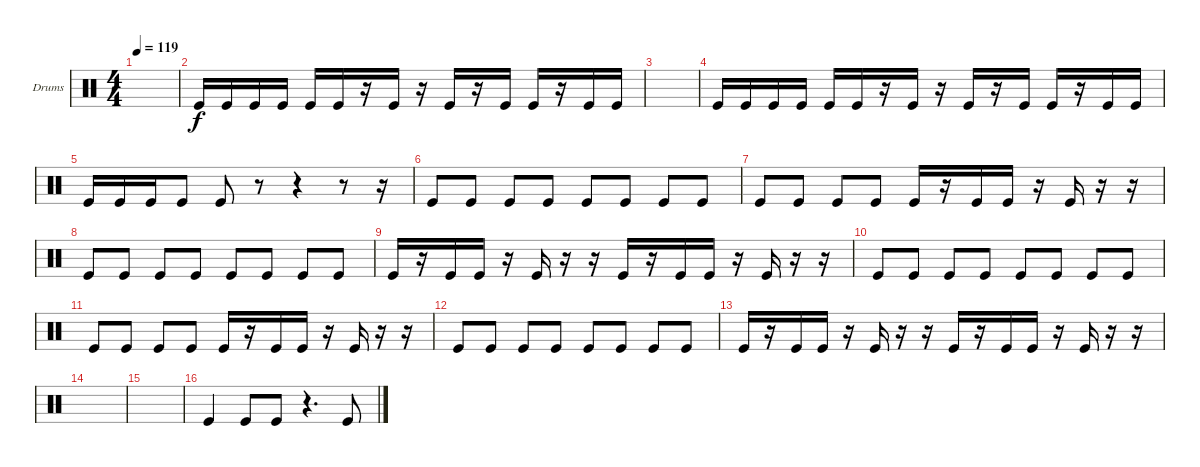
\defaultSystemsLayout 4
\bracketExtendMode groupsimilarinstruments
\firstSystemTrackNameOrientation horizontal
\otherSystemsTrackNameOrientation horizontal
\track ("Kick (hit)" "Drums") {instrument percussion}
\staff {score}
\articulation defaults
\ts (4 4)
\tempo 119
\clef neutral
\scale
0.333333
\ks c
|
\scale
0.333333 "Kick (hit)".16 "Kick (hit)".16 "Kick (hit)".16 "Kick (hit)".16 "Kick (hit)".16 "Kick (hit)".16 r.16 "Kick (hit)".16 r.16 "Kick (hit)".16 r.16 "Kick (hit)".16 "Kick (hit)".16 r.16 "Kick (hit)".16 "Kick (hit)".16 |
\scale
0.333333 |
\scale
0.333333 "Kick (hit)".16 "Kick (hit)".16 "Kick (hit)".16 "Kick (hit)".16 "Kick (hit)".16 "Kick (hit)".16 r.16 "Kick (hit)".16 r.16 "Kick (hit)".16 r.16 "Kick (hit)".16 "Kick (hit)".16 r.16 "Kick (hit)".16 "Kick (hit)".16 |
\scale
0.333333 "Kick (hit)".16 "Kick (hit)".16 "Kick (hit)".16 "Kick (hit)".8 "Kick (hit)".8 r.8 r.4 r.8 r.16 |
\scale
0.333333 "Kick (hit)".8 "Kick (hit)".8 "Kick (hit)".8 "Kick (hit)".8 "Kick (hit)".8 "Kick (hit)".8 "Kick (hit)".8 "Kick (hit)".8 |
\scale
0.333333 "Kick (hit)".8 "Kick (hit)".8 "Kick (hit)".8 "Kick (hit)".8 "Kick (hit)".16 r.16 "Kick (hit)".16 "Kick (hit)".16 r.16 "Kick (hit)".16 r.16 r.16 |
\scale
0.333333 "Kick (hit)".8 "Kick (hit)".8 "Kick (hit)".8 "Kick (hit)".8 "Kick (hit)".8 "Kick (hit)".8 "Kick (hit)".8 "Kick (hit)".8 |
\scale
0.333333 "Kick (hit)".16 r.16 "Kick (hit)".16 "Kick (hit)".16 r.16 "Kick (hit)".16 r.16 r.16 "Kick (hit)".16 r.16 "Kick (hit)".16 "Kick (hit)".16 r.16 "Kick (hit)".16 r.16 r.16 |
\scale
0.333333 "Kick (hit)".8 "Kick (hit)".8 "Kick (hit)".8 "Kick (hit)".8 "Kick (hit)".8 "Kick (hit)".8 "Kick (hit)".8 "Kick (hit)".8 |
\scale
0.333333 "Kick (hit)".8 "Kick (hit)".8 "Kick (hit)".8 "Kick (hit)".8 "Kick (hit)".16 r.16 "Kick (hit)".16 "Kick (hit)".16 r.16 "Kick (hit)".16 r.16 r.16 |
\scale
0.333333 "Kick (hit)".8 "Kick (hit)".8 "Kick (hit)".8 "Kick (hit)".8 "Kick (hit)".8 "Kick (hit)".8 "Kick (hit)".8 "Kick (hit)".8 |
\scale
0.333333 "Kick (hit)".16 r.16 "Kick (hit)".16 "Kick (hit)".16 r.16 "Kick (hit)".16 r.16 r.16 "Kick (hit)".16 r.16 "Kick (hit)".16 "Kick (hit)".16 r.16 "Kick (hit)".16 r.16 r.16 |
\scale
0.333333 |
\scale
0.333333 |
\scale
0.333333 "Kick (hit)".4 "Kick (hit)".8 "Kick (hit)".8 r.4{d} "Kick (hit)".8
